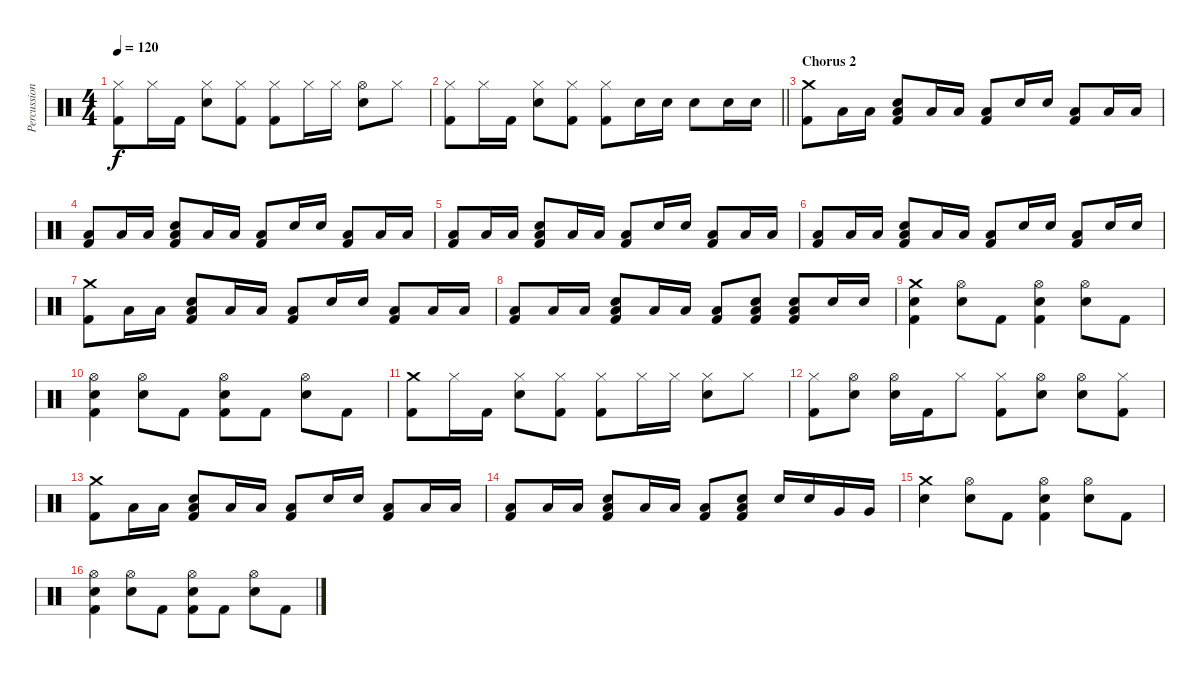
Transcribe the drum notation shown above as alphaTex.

\track ("Percussion" "Percussion") {instrument percussion}
\staff {score}
\articulation defaults
\ts (4 4)
\tempo 120
\clef neutral
\ks c
("Hi-Hat (closed)" "Kick (hit) 2").8{dy f} "Hi-Hat (closed)".16 "Kick (hit) 2".16 ("Hi-Hat (closed)" "Electric Snare (hit)").8 ("Hi-Hat (closed)" "Kick (hit) 2").8 ("Hi-Hat (closed)" "Kick (hit) 2").8 "Hi-Hat (closed)".16 "Hi-Hat (closed)".16 ("Hi-Hat (open)" "Electric Snare (hit)").8 "Hi-Hat (closed)".8 |
\barLineRight lightlight
("Hi-Hat (closed)" "Kick (hit) 2").8 "Hi-Hat (closed)".16 "Kick (hit) 2".16 ("Hi-Hat (closed)" "Electric Snare (hit)").8 ("Hi-Hat (closed)" "Kick (hit) 2").8 ("Hi-Hat (closed)" "Kick (hit) 2").8 "Electric Snare (hit)".16 "Electric Snare (hit)".16 "Electric Snare (hit)".8 "Electric Snare (hit)".16 "Electric Snare (hit)".16 |
\section ("" "Chorus 2")
("Crash medium (hit)" "Kick (hit) 2").8 "Low Floor Tom (hit)".16 "Low Floor Tom (hit)".16 ("Low Floor Tom (hit)" "Electric Snare (hit)" "Kick (hit) 2").8 "Low Floor Tom (hit)".16 "Low Floor Tom (hit)".16 ("Low Floor Tom (hit)" "Kick (hit) 2").8 "Electric Snare (hit)".16 "Electric Snare (hit)".16 ("Low Floor Tom (hit)" "Kick (hit) 2").8 "Low Floor Tom (hit)".16 "Low Floor Tom (hit)".16 |
("Low Floor Tom (hit)" "Kick (hit) 2").8 "Low Floor Tom (hit)".16 "Low Floor Tom (hit)".16 ("Low Floor Tom (hit)" "Electric Snare (hit)" "Kick (hit) 2").8 "Low Floor Tom (hit)".16 "Low Floor Tom (hit)".16 ("Low Floor Tom (hit)" "Kick (hit) 2").8 "Electric Snare (hit)".16 "Electric Snare (hit)".16 ("Low Floor Tom (hit)" "Kick (hit) 2").8 "Low Floor Tom (hit)".16 "Low Floor Tom (hit)".16 |
("Low Floor Tom (hit)" "Kick (hit) 2").8 "Low Floor Tom (hit)".16 "Low Floor Tom (hit)".16 ("Low Floor Tom (hit)" "Electric Snare (hit)" "Kick (hit) 2").8 "Low Floor Tom (hit)".16 "Low Floor Tom (hit)".16 ("Low Floor Tom (hit)" "Kick (hit) 2").8 "Electric Snare (hit)".16 "Electric Snare (hit)".16 ("Low Floor Tom (hit)" "Kick (hit) 2").8 "Low Floor Tom (hit)".16 "Low Floor Tom (hit)".16 |
("Low Floor Tom (hit)" "Kick (hit) 2").8 "Low Floor Tom (hit)".16 "Low Floor Tom (hit)".16 ("Low Floor Tom (hit)" "Electric Snare (hit)" "Kick (hit) 2").8 "Low Floor Tom (hit)".16 "Low Floor Tom (hit)".16 ("Low Floor Tom (hit)" "Kick (hit) 2").8 "Electric Snare (hit)".16 "Electric Snare (hit)".16 ("Low Floor Tom (hit)" "Kick (hit) 2").8 "Electric Snare (hit)".16 "Electric Snare (hit)".16 |
("Crash medium (hit)" "Kick (hit) 2").8 "Low Floor Tom (hit)".16 "Low Floor Tom (hit)".16 ("Low Floor Tom (hit)" "Electric Snare (hit)" "Kick (hit) 2").8 "Low Floor Tom (hit)".16 "Low Floor Tom (hit)".16 ("Low Floor Tom (hit)" "Kick (hit) 2").8 "Electric Snare (hit)".16 "Electric Snare (hit)".16 ("Low Floor Tom (hit)" "Kick (hit) 2").8 "Low Floor Tom (hit)".16 "Low Floor Tom (hit)".16 |
("Low Floor Tom (hit)" "Kick (hit) 2").8 "Low Floor Tom (hit)".16 "Low Floor Tom (hit)".16 ("Low Floor Tom (hit)" "Electric Snare (hit)" "Kick (hit) 2").8 "Low Floor Tom (hit)".16 "Low Floor Tom (hit)".16 ("Low Floor Tom (hit)" "Kick (hit) 2").8 ("Low Floor Tom (hit)" "Electric Snare (hit)" "Kick (hit) 2").8 ("Low Floor Tom (hit)" "Electric Snare (hit)" "Kick (hit) 2").8 "Electric Snare (hit)".16 "Electric Snare (hit)".16 |
("Crash medium (hit)" "Electric Snare (hit)" "Kick (hit) 2").4 ("Hi-Hat (open)" "Electric Snare (hit)").8 "Kick (hit) 2".8 ("Hi-Hat (open)" "Electric Snare (hit)" "Kick (hit) 2").4 ("Hi-Hat (open)" "Electric Snare (hit)").8 "Kick (hit) 2".8 |
("Hi-Hat (open)" "Electric Snare (hit)" "Kick (hit) 2").4 ("Hi-Hat (open)" "Electric Snare (hit)").8 "Kick (hit) 2".8 ("Hi-Hat (open)" "Electric Snare (hit)" "Kick (hit) 2").8 "Kick (hit) 2".8 ("Hi-Hat (open)" "Electric Snare (hit)").8 "Kick (hit) 2".8 |
("Crash medium (hit)" "Kick (hit) 2").8 "Hi-Hat (closed)".16 "Kick (hit) 2".16 ("Hi-Hat (closed)" "Electric Snare (hit)").8 ("Hi-Hat (closed)" "Kick (hit) 2").8 ("Hi-Hat (closed)" "Kick (hit) 2").8 "Hi-Hat (closed)".16 "Hi-Hat (closed)".16 ("Hi-Hat (closed)" "Electric Snare (hit)").8 "Hi-Hat (closed)".8 |
("Hi-Hat (closed)" "Kick (hit) 2").8 ("Hi-Hat (open)" "Electric Snare (hit)").8 ("Hi-Hat (open)" "Electric Snare (hit)").16 "Kick (hit) 2".16 "Hi-Hat (closed)".8 ("Hi-Hat (closed)" "Kick (hit) 2").8 ("Hi-Hat (open)" "Electric Snare (hit)").8 ("Hi-Hat (open)" "Electric Snare (hit)").8 ("Hi-Hat (closed)" "Kick (hit) 2").8 |
("Crash medium (hit)" "Kick (hit) 2").8 "Low Floor Tom (hit)".16 "Low Floor Tom (hit)".16 ("Low Floor Tom (hit)" "Electric Snare (hit)" "Kick (hit) 2").8 "Low Floor Tom (hit)".16 "Low Floor Tom (hit)".16 ("Low Floor Tom (hit)" "Kick (hit) 2").8 "Electric Snare (hit)".16 "Electric Snare (hit)".16 ("Low Floor Tom (hit)" "Kick (hit) 2").8 "Low Floor Tom (hit)".16 "Low Floor Tom (hit)".16 |
("Low Floor Tom (hit)" "Kick (hit) 2").8 "Low Floor Tom (hit)".16 "Low Floor Tom (hit)".16 ("Low Floor Tom (hit)" "Electric Snare (hit)" "Kick (hit) 2").8 "Low Floor Tom (hit)".16 "Low Floor Tom (hit)".16 ("Low Floor Tom (hit)" "Kick (hit) 2").8 ("Low Floor Tom (hit)" "Electric Snare (hit)" "Kick (hit) 2").8 "Electric Snare (hit)".16 "Electric Snare (hit)".16 "Very Low Tom (hit)".16 "Very Low Tom (hit)".16 |
("Crash medium (hit)" "Electric Snare (hit)").4 ("Hi-Hat (open)" "Electric Snare (hit)").8 "Kick (hit) 2".8 ("Hi-Hat (open)" "Electric Snare (hit)" "Kick (hit) 2").4 ("Hi-Hat (open)" "Electric Snare (hit)").8 "Kick (hit) 2".8 |
("Hi-Hat (open)" "Electric Snare (hit)" "Kick (hit) 2").4 ("Hi-Hat (open)" "Electric Snare (hit)").8 "Kick (hit) 2".8 ("Hi-Hat (open)" "Electric Snare (hit)" "Kick (hit) 2").8 "Kick (hit) 2".8 ("Hi-Hat (open)" "Electric Snare (hit)").8 "Kick (hit) 2".8
